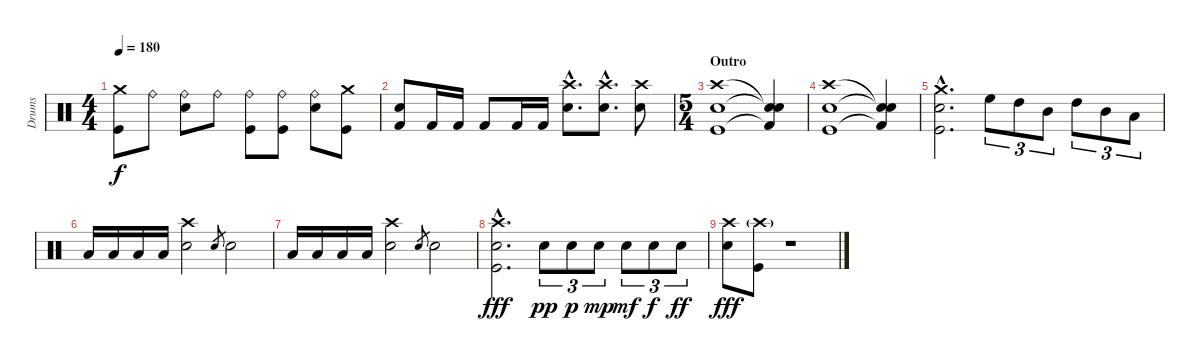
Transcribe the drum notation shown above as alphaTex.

\track ("Drums" "Drums") {instrument percussion}
\staff {score}
\articulation defaults
\ts (4 4)
\tempo 180
\clef neutral
\ks c
("Crash medium (hit)" "Kick (hit)").8{dy f} "Ride (bell)".8 ("Ride (bell)" "Electric Snare (hit)").8 "Ride (bell)".8 ("Ride (bell)" "Kick (hit)").8 ("Ride (bell)" "Kick (hit)").8 ("Ride (bell)" "Electric Snare (hit)").8 ("Crash medium (hit)" "Kick (hit)").8 |
("Kick (hit) 2" "Electric Snare (hit)").8 "Kick (hit) 2".16 "Kick (hit) 2".16 "Kick (hit) 2".8 "Kick (hit) 2".16 "Kick (hit) 2".16 ("Crash high (hit)"{hac} "Electric Snare (hit)"{hac}).8{d} ("Crash high (hit)"{hac} "Electric Snare (hit)"{hac}).8{d} ("Crash high (hit)" "Electric Snare (hit)").8 |
\ts (5 4)
\section ("" "Outro")
("Kick (hit)" "Crash high (hit)" "Electric Snare (hit)").1 ("Kick (hit) 2"{t} "Snare (hit)"{t} "Snare (hit)"{t}).4 |
("Kick (hit)" "Crash high (hit)" "Electric Snare (hit)").1 ("Kick (hit) 2"{t} "Snare (hit)"{t} "Snare (hit)"{t}).4 |
("Crash medium (hit)"{hac} "Kick (hit)"{hac} "Electric Snare (hit)"{hac}).2{d} "High Floor Tom (hit)".8{tu (3 2)} "High Tom (hit)".8{tu (3 2)} "Mid Tom (hit)".8{tu (3 2)} "High Tom (hit)".8{tu (3 2)} "Mid Tom (hit)".8{tu (3 2)} "Low Tom (hit)".8{tu (3 2)} |
"Low Floor Tom (hit)".16 "Low Floor Tom (hit)".16 "Low Floor Tom (hit)".16 "Low Floor Tom (hit)".16 ("Crash high (hit)" "Electric Snare (hit)").2 "Electric Snare (hit)".8{gr} "Electric Snare (hit)".2 |
"Low Floor Tom (hit)".16 "Low Floor Tom (hit)".16 "Low Floor Tom (hit)".16 "Low Floor Tom (hit)".16 ("Crash high (hit)" "Electric Snare (hit)").2 "Electric Snare (hit)".8{gr} "Electric Snare (hit)".2 |
("Crash high (hit)"{hac} "Electric Snare (hit)"{hac} "Kick (hit)"{hac}).2{d dy fff} "Electric Snare (hit)".8{tu (3 2) dy pp} "Electric Snare (hit)".8{tu (3 2) dy p} "Electric Snare (hit)".8{tu (3 2) dy mp} "Electric Snare (hit)".8{tu (3 2) dy mf} "Electric Snare (hit)".8{tu (3 2) dy f} "Electric Snare (hit)".8{tu (3 2) dy ff} |
("Crash high (hit)" "Electric Snare (hit)").8{dy fff} ("Crash high (hit)"{g} "Kick (hit)").8 r.1
